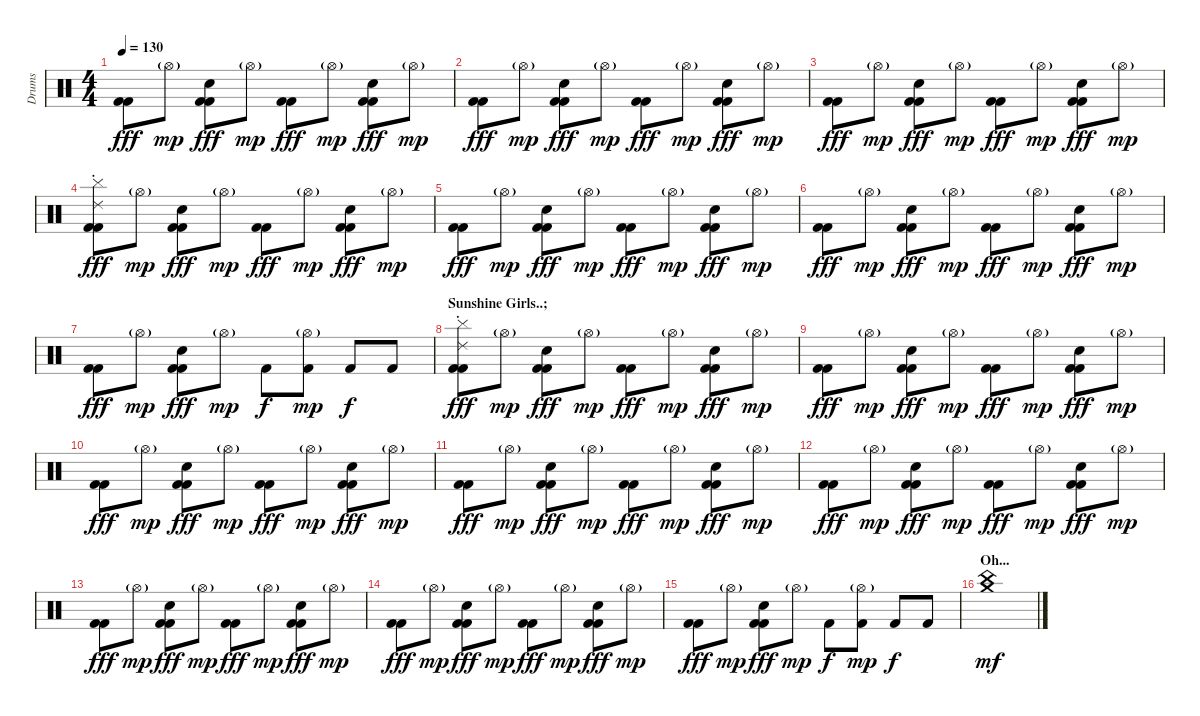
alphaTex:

\track ("Drums" "Drums") {instrument percussion}
\staff {score}
\articulation defaults
\ts (4 4)
\tempo 130
\clef neutral
\ks c
("Kick (hit) 2" "Kick (hit) 2").8{dy fff} "Hi-Hat (open)"{g}.8{dy mp} ("Hand Clap (hit)" "Kick (hit) 2" "Kick (hit) 2").8{dy fff} "Hi-Hat (open)"{g}.8{dy mp} ("Kick (hit) 2" "Kick (hit) 2").8{dy fff} "Hi-Hat (open)"{g}.8{dy mp} ("Hand Clap (hit)" "Kick (hit) 2" "Kick (hit) 2").8{dy fff} "Hi-Hat (open)"{g}.8{dy mp} |
("Kick (hit) 2" "Kick (hit) 2").8{dy fff} "Hi-Hat (open)"{g}.8{dy mp} ("Hand Clap (hit)" "Kick (hit) 2" "Kick (hit) 2").8{dy fff} "Hi-Hat (open)"{g}.8{dy mp} ("Kick (hit) 2" "Kick (hit) 2").8{dy fff} "Hi-Hat (open)"{g}.8{dy mp} ("Hand Clap (hit)" "Kick (hit) 2" "Kick (hit) 2").8{dy fff} "Hi-Hat (open)"{g}.8{dy mp} |
("Kick (hit) 2" "Kick (hit) 2").8{dy fff} "Hi-Hat (open)"{g}.8{dy mp} ("Hand Clap (hit)" "Kick (hit) 2" "Kick (hit) 2").8{dy fff} "Hi-Hat (open)"{g}.8{dy mp} ("Kick (hit) 2" "Kick (hit) 2").8{dy fff} "Hi-Hat (open)"{g}.8{dy mp} ("Hand Clap (hit)" "Kick (hit) 2" "Kick (hit) 2").8{dy fff} "Hi-Hat (open)"{g}.8{dy mp} |
("Ride (choke) 2" "Cymbal (hit)" "Kick (hit) 2" "Kick (hit) 2").8{dy fff} "Hi-Hat (open)"{g}.8{dy mp} ("Hand Clap (hit)" "Kick (hit) 2" "Kick (hit) 2").8{dy fff} "Hi-Hat (open)"{g}.8{dy mp} ("Kick (hit) 2" "Kick (hit) 2").8{dy fff} "Hi-Hat (open)"{g}.8{dy mp} ("Hand Clap (hit)" "Kick (hit) 2" "Kick (hit) 2").8{dy fff} "Hi-Hat (open)"{g}.8{dy mp} |
("Kick (hit) 2" "Kick (hit) 2").8{dy fff} "Hi-Hat (open)"{g}.8{dy mp} ("Hand Clap (hit)" "Kick (hit) 2" "Kick (hit) 2").8{dy fff} "Hi-Hat (open)"{g}.8{dy mp} ("Kick (hit) 2" "Kick (hit) 2").8{dy fff} "Hi-Hat (open)"{g}.8{dy mp} ("Hand Clap (hit)" "Kick (hit) 2" "Kick (hit) 2").8{dy fff} "Hi-Hat (open)"{g}.8{dy mp} |
("Kick (hit) 2" "Kick (hit) 2").8{dy fff} "Hi-Hat (open)"{g}.8{dy mp} ("Hand Clap (hit)" "Kick (hit) 2" "Kick (hit) 2").8{dy fff} "Hi-Hat (open)"{g}.8{dy mp} ("Kick (hit) 2" "Kick (hit) 2").8{dy fff} "Hi-Hat (open)"{g}.8{dy mp} ("Hand Clap (hit)" "Kick (hit) 2" "Kick (hit) 2").8{dy fff} "Hi-Hat (open)"{g}.8{dy mp} |
("Kick (hit) 2" "Kick (hit) 2").8{dy fff} "Hi-Hat (open)"{g}.8{dy mp} ("Hand Clap (hit)" "Kick (hit) 2" "Kick (hit) 2").8{dy fff} "Hi-Hat (open)"{g}.8{dy mp} "Kick (hit) 2".8{dy f} ("Hi-Hat (open)"{g} "Kick (hit) 2").8{dy mp} "Kick (hit) 2".8{dy f} "Kick (hit) 2".8 |
\section ("" "Sunshine Girls..;")
("Ride (choke) 2" "Cymbal (hit)" "Kick (hit) 2" "Kick (hit) 2").8{dy fff} "Hi-Hat (open)"{g}.8{dy mp} ("Hand Clap (hit)" "Kick (hit) 2" "Kick (hit) 2").8{dy fff} "Hi-Hat (open)"{g}.8{dy mp} ("Kick (hit) 2" "Kick (hit) 2").8{dy fff} "Hi-Hat (open)"{g}.8{dy mp} ("Hand Clap (hit)" "Kick (hit) 2" "Kick (hit) 2").8{dy fff} "Hi-Hat (open)"{g}.8{dy mp} |
("Kick (hit) 2" "Kick (hit) 2").8{dy fff} "Hi-Hat (open)"{g}.8{dy mp} ("Hand Clap (hit)" "Kick (hit) 2" "Kick (hit) 2").8{dy fff} "Hi-Hat (open)"{g}.8{dy mp} ("Kick (hit) 2" "Kick (hit) 2").8{dy fff} "Hi-Hat (open)"{g}.8{dy mp} ("Hand Clap (hit)" "Kick (hit) 2" "Kick (hit) 2").8{dy fff} "Hi-Hat (open)"{g}.8{dy mp} |
("Kick (hit) 2" "Kick (hit) 2").8{dy fff} "Hi-Hat (open)"{g}.8{dy mp} ("Hand Clap (hit)" "Kick (hit) 2" "Kick (hit) 2").8{dy fff} "Hi-Hat (open)"{g}.8{dy mp} ("Kick (hit) 2" "Kick (hit) 2").8{dy fff} "Hi-Hat (open)"{g}.8{dy mp} ("Hand Clap (hit)" "Kick (hit) 2" "Kick (hit) 2").8{dy fff} "Hi-Hat (open)"{g}.8{dy mp} |
("Kick (hit) 2" "Kick (hit) 2").8{dy fff} "Hi-Hat (open)"{g}.8{dy mp} ("Hand Clap (hit)" "Kick (hit) 2" "Kick (hit) 2").8{dy fff} "Hi-Hat (open)"{g}.8{dy mp} ("Kick (hit) 2" "Kick (hit) 2").8{dy fff} "Hi-Hat (open)"{g}.8{dy mp} ("Hand Clap (hit)" "Kick (hit) 2" "Kick (hit) 2").8{dy fff} "Hi-Hat (open)"{g}.8{dy mp} |
("Kick (hit) 2" "Kick (hit) 2").8{dy fff} "Hi-Hat (open)"{g}.8{dy mp} ("Hand Clap (hit)" "Kick (hit) 2" "Kick (hit) 2").8{dy fff} "Hi-Hat (open)"{g}.8{dy mp} ("Kick (hit) 2" "Kick (hit) 2").8{dy fff} "Hi-Hat (open)"{g}.8{dy mp} ("Hand Clap (hit)" "Kick (hit) 2" "Kick (hit) 2").8{dy fff} "Hi-Hat (open)"{g}.8{dy mp} |
("Kick (hit) 2" "Kick (hit) 2").8{dy fff} "Hi-Hat (open)"{g}.8{dy mp} ("Hand Clap (hit)" "Kick (hit) 2" "Kick (hit) 2").8{dy fff} "Hi-Hat (open)"{g}.8{dy mp} ("Kick (hit) 2" "Kick (hit) 2").8{dy fff} "Hi-Hat (open)"{g}.8{dy mp} ("Hand Clap (hit)" "Kick (hit) 2" "Kick (hit) 2").8{dy fff} "Hi-Hat (open)"{g}.8{dy mp} |
("Kick (hit) 2" "Kick (hit) 2").8{dy fff} "Hi-Hat (open)"{g}.8{dy mp} ("Hand Clap (hit)" "Kick (hit) 2" "Kick (hit) 2").8{dy fff} "Hi-Hat (open)"{g}.8{dy mp} ("Kick (hit) 2" "Kick (hit) 2").8{dy fff} "Hi-Hat (open)"{g}.8{dy mp} ("Hand Clap (hit)" "Kick (hit) 2" "Kick (hit) 2").8{dy fff} "Hi-Hat (open)"{g}.8{dy mp} |
("Kick (hit) 2" "Kick (hit) 2").8{dy fff} "Hi-Hat (open)"{g}.8{dy mp} ("Hand Clap (hit)" "Kick (hit) 2" "Kick (hit) 2").8{dy fff} "Hi-Hat (open)"{g}.8{dy mp} "Kick (hit) 2".8{dy f} ("Hi-Hat (open)"{g} "Kick (hit) 2").8{dy mp} "Kick (hit) 2".8{dy f} "Kick (hit) 2".8 |
\section ("" "Oh...")
("Crash medium (hit)" "China (hit)").1{dy mf}
